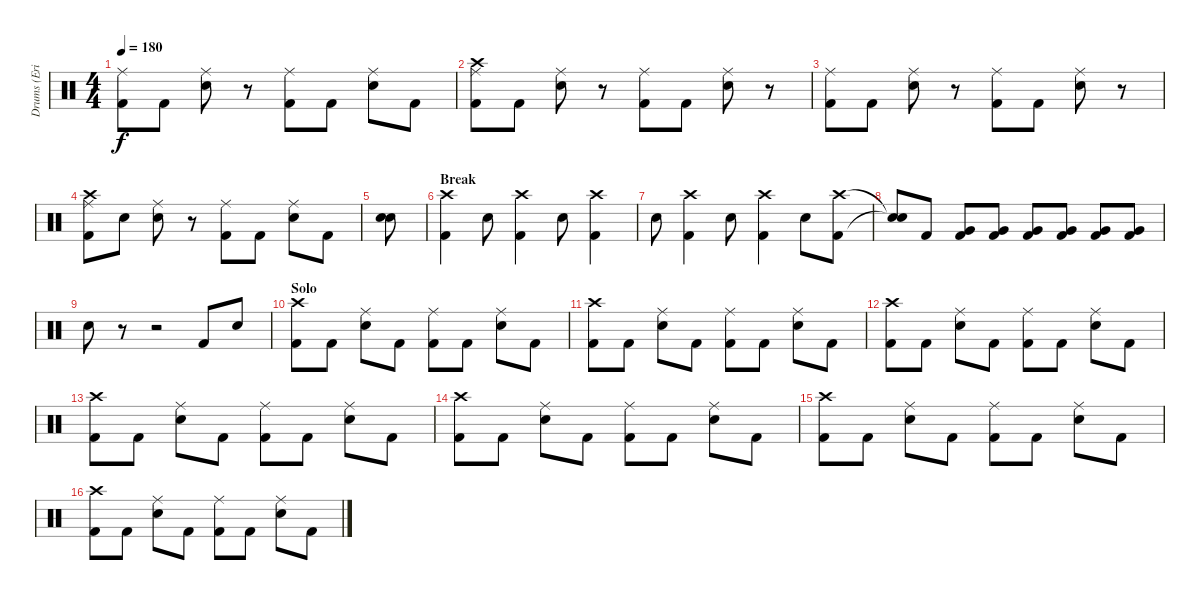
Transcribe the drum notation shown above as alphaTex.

\track ("Drums (Eric Young)" "Drums (Eri") {instrument percussion}
\staff {score}
\articulation defaults
\ts (4 4)
\tempo 180
\clef neutral
\ks c
("Ride (middle)" "Kick (hit) 2").8{dy f} "Kick (hit) 2".8 ("Ride (middle)" "Snare (hit) 2").8 r.8 ("Ride (middle)" "Kick (hit) 2").8 "Kick (hit) 2".8 ("Ride (middle)" "Snare (hit) 2").8 "Kick (hit) 2".8 |
("Crash high (hit)" "Ride (middle)" "Kick (hit) 2").8 "Kick (hit) 2".8 ("Ride (middle)" "Snare (hit) 2").8 r.8 ("Ride (middle)" "Kick (hit) 2").8 "Kick (hit) 2".8 ("Ride (middle)" "Snare (hit) 2").8 r.8 |
("Ride (middle)" "Kick (hit) 2").8 "Kick (hit) 2".8 ("Ride (middle)" "Snare (hit) 2").8 r.8 ("Ride (middle)" "Kick (hit) 2").8 "Kick (hit) 2".8 ("Ride (middle)" "Snare (hit) 2").8 r.8 |
("Crash high (hit)" "Ride (middle)" "Kick (hit) 2").8 "Snare (hit)".8 ("Ride (middle)" "Snare (hit) 2").8 r.8 ("Ride (middle)" "Kick (hit) 2").8 "Kick (hit) 2".8 ("Ride (middle)" "Snare (hit) 2").8 "Kick (hit) 2".8 |
("Snare (hit) 2" "Snare (hit) 2").8 |
\section ("" "Break")
("Crash high (hit)" "Kick (hit) 2").4 "Snare (hit) 2".8 ("Crash high (hit)" "Kick (hit) 2").4 "Snare (hit) 2".8 ("Crash high (hit)" "Kick (hit) 2").4 |
"Snare (hit) 2".8 ("Crash high (hit)" "Kick (hit) 2").4 "Snare (hit) 2".8 ("Crash high (hit)" "Kick (hit) 2").4 "Snare (hit) 2".8 ("Crash high (hit)" "Kick (hit) 2").8 |
("Snare (hit)"{t} "Snare (hit)"{t}).8 "Kick (hit) 2".8 ("Very Low Tom (hit)" "Kick (hit) 2").8 ("Very Low Tom (hit)" "Kick (hit) 2").8 ("Very Low Tom (hit)" "Kick (hit) 2").8 ("Very Low Tom (hit)" "Kick (hit) 2").8 ("Very Low Tom (hit)" "Kick (hit) 2").8 ("Very Low Tom (hit)" "Kick (hit) 2").8 |
"Snare (hit) 2".8 r.8 r.2 "Kick (hit) 2".8 "Snare (hit) 2".8 |
\section ("" "Solo")
("Crash high (hit)" "Kick (hit) 2").8 "Kick (hit) 2".8 ("Ride (middle)" "Snare (hit) 2").8 "Kick (hit) 2".8 ("Ride (middle)" "Kick (hit) 2").8 "Kick (hit) 2".8 ("Ride (middle)" "Snare (hit) 2").8 "Kick (hit) 2".8 |
("Crash high (hit)" "Kick (hit) 2").8 "Kick (hit) 2".8 ("Ride (middle)" "Snare (hit) 2").8 "Kick (hit) 2".8 ("Ride (middle)" "Kick (hit) 2").8 "Kick (hit) 2".8 ("Ride (middle)" "Snare (hit) 2").8 "Kick (hit) 2".8 |
("Crash high (hit)" "Kick (hit) 2").8 "Kick (hit) 2".8 ("Ride (middle)" "Snare (hit) 2").8 "Kick (hit) 2".8 ("Ride (middle)" "Kick (hit) 2").8 "Kick (hit) 2".8 ("Ride (middle)" "Snare (hit) 2").8 "Kick (hit) 2".8 |
("Crash high (hit)" "Kick (hit) 2").8 "Kick (hit) 2".8 ("Ride (middle)" "Snare (hit) 2").8 "Kick (hit) 2".8 ("Ride (middle)" "Kick (hit) 2").8 "Kick (hit) 2".8 ("Ride (middle)" "Snare (hit) 2").8 "Kick (hit) 2".8 |
("Crash high (hit)" "Kick (hit) 2").8 "Kick (hit) 2".8 ("Ride (middle)" "Snare (hit) 2").8 "Kick (hit) 2".8 ("Ride (middle)" "Kick (hit) 2").8 "Kick (hit) 2".8 ("Ride (middle)" "Snare (hit) 2").8 "Kick (hit) 2".8 |
("Crash high (hit)" "Kick (hit) 2").8 "Kick (hit) 2".8 ("Ride (middle)" "Snare (hit) 2").8 "Kick (hit) 2".8 ("Ride (middle)" "Kick (hit) 2").8 "Kick (hit) 2".8 ("Ride (middle)" "Snare (hit) 2").8 "Kick (hit) 2".8 |
("Crash high (hit)" "Kick (hit) 2").8 "Kick (hit) 2".8 ("Ride (middle)" "Snare (hit) 2").8 "Kick (hit) 2".8 ("Ride (middle)" "Kick (hit) 2").8 "Kick (hit) 2".8 ("Ride (middle)" "Snare (hit) 2").8 "Kick (hit) 2".8
